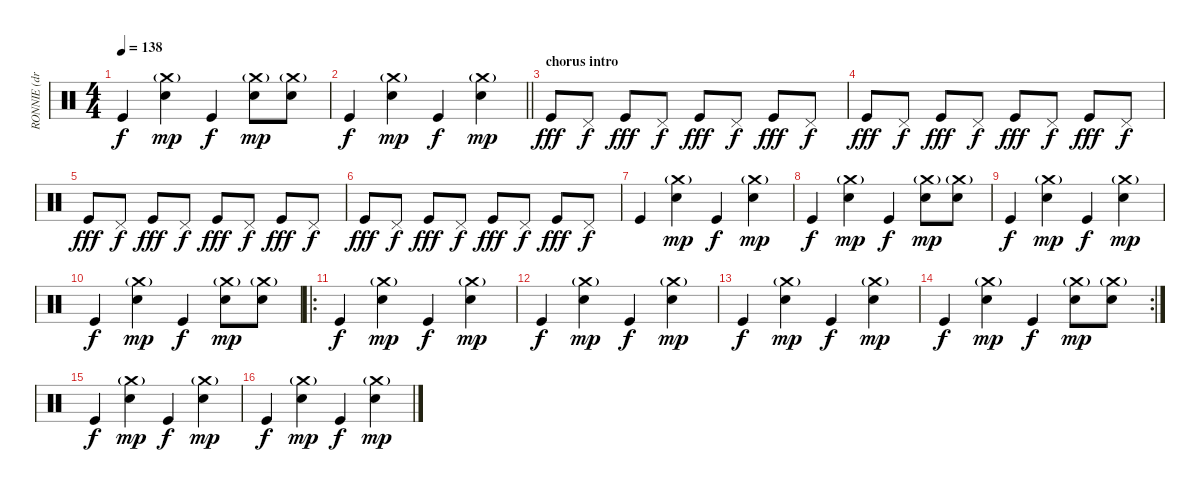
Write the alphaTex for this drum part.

\track ("RONNIE (drums)" "RONNIE (dr") {instrument percussion}
\staff {score}
\articulation defaults
\ts (4 4)
\tempo 138
\clef neutral
\ks c "Kick (hit)".4{dy f}
("Electric Snare (hit)" "Crash medium (hit)"{g}).4{dy mp} "Kick (hit)".4{dy f} ("Electric Snare (hit)" "Crash medium (hit)"{g}).8{dy mp} ("Electric Snare (hit)" "Crash medium (hit)"{g}).8 |
\barLineRight lightlight "Kick (hit)".4{dy f}
("Electric Snare (hit)" "Crash medium (hit)"{g}).4{dy mp} "Kick (hit)".4{dy f} ("Electric Snare (hit)" "Crash medium (hit)"{g}).4{dy mp} |
\section ("" "chorus intro")
"Kick (hit)".8{dy fff} "Pedal Hi-Hat (hit)".8{dy f} "Kick (hit)".8{dy fff} "Pedal Hi-Hat (hit)".8{dy f} "Kick (hit)".8{dy fff} "Pedal Hi-Hat (hit)".8{dy f} "Kick (hit)".8{dy fff} "Pedal Hi-Hat (hit)".8{dy f} |
"Kick (hit)".8{dy fff} "Pedal Hi-Hat (hit)".8{dy f} "Kick (hit)".8{dy fff} "Pedal Hi-Hat (hit)".8{dy f} "Kick (hit)".8{dy fff} "Pedal Hi-Hat (hit)".8{dy f} "Kick (hit)".8{dy fff} "Pedal Hi-Hat (hit)".8{dy f} |
"Kick (hit)".8{dy fff} "Pedal Hi-Hat (hit)".8{dy f} "Kick (hit)".8{dy fff} "Pedal Hi-Hat (hit)".8{dy f} "Kick (hit)".8{dy fff} "Pedal Hi-Hat (hit)".8{dy f} "Kick (hit)".8{dy fff} "Pedal Hi-Hat (hit)".8{dy f} |
"Kick (hit)".8{dy fff} "Pedal Hi-Hat (hit)".8{dy f} "Kick (hit)".8{dy fff} "Pedal Hi-Hat (hit)".8{dy f} "Kick (hit)".8{dy fff} "Pedal Hi-Hat (hit)".8{dy f} "Kick (hit)".8{dy fff} "Pedal Hi-Hat (hit)".8{dy f} |
"Kick (hit)".4 ("Electric Snare (hit)" "Crash medium (hit)"{g}).4{dy mp} "Kick (hit)".4{dy f} ("Electric Snare (hit)" "Crash medium (hit)"{g}).4{dy mp} |
"Kick (hit)".4{dy f} ("Electric Snare (hit)" "Crash medium (hit)"{g}).4{dy mp} "Kick (hit)".4{dy f} ("Electric Snare (hit)" "Crash medium (hit)"{g}).8{dy mp} ("Electric Snare (hit)" "Crash medium (hit)"{g}).8 |
"Kick (hit)".4{dy f} ("Electric Snare (hit)" "Crash medium (hit)"{g}).4{dy mp} "Kick (hit)".4{dy f} ("Electric Snare (hit)" "Crash medium (hit)"{g}).4{dy mp} |
"Kick (hit)".4{dy f} ("Electric Snare (hit)" "Crash medium (hit)"{g}).4{dy mp} "Kick (hit)".4{dy f} ("Electric Snare (hit)" "Crash medium (hit)"{g}).8{dy mp} ("Electric Snare (hit)" "Crash medium (hit)"{g}).8 |
\ro "Kick (hit)".4{dy f}
("Electric Snare (hit)" "Crash medium (hit)"{g}).4{dy mp} "Kick (hit)".4{dy f} ("Electric Snare (hit)" "Crash medium (hit)"{g}).4{dy mp} |
"Kick (hit)".4{dy f} ("Electric Snare (hit)" "Crash medium (hit)"{g}).4{dy mp} "Kick (hit)".4{dy f} ("Electric Snare (hit)" "Crash medium (hit)"{g}).4{dy mp} |
"Kick (hit)".4{dy f} ("Electric Snare (hit)" "Crash medium (hit)"{g}).4{dy mp} "Kick (hit)".4{dy f} ("Electric Snare (hit)" "Crash medium (hit)"{g}).4{dy mp} |
\rc 2 "Kick (hit)".4{dy f}
("Electric Snare (hit)" "Crash medium (hit)"{g}).4{dy mp} "Kick (hit)".4{dy f} ("Electric Snare (hit)" "Crash medium (hit)"{g}).8{dy mp} ("Electric Snare (hit)" "Crash medium (hit)"{g}).8 |
"Kick (hit)".4{dy f} ("Electric Snare (hit)" "Crash medium (hit)"{g}).4{dy mp} "Kick (hit)".4{dy f} ("Electric Snare (hit)" "Crash medium (hit)"{g}).4{dy mp} |
"Kick (hit)".4{dy f} ("Electric Snare (hit)" "Crash medium (hit)"{g}).4{dy mp} "Kick (hit)".4{dy f} ("Electric Snare (hit)" "Crash medium (hit)"{g}).4{dy mp}
